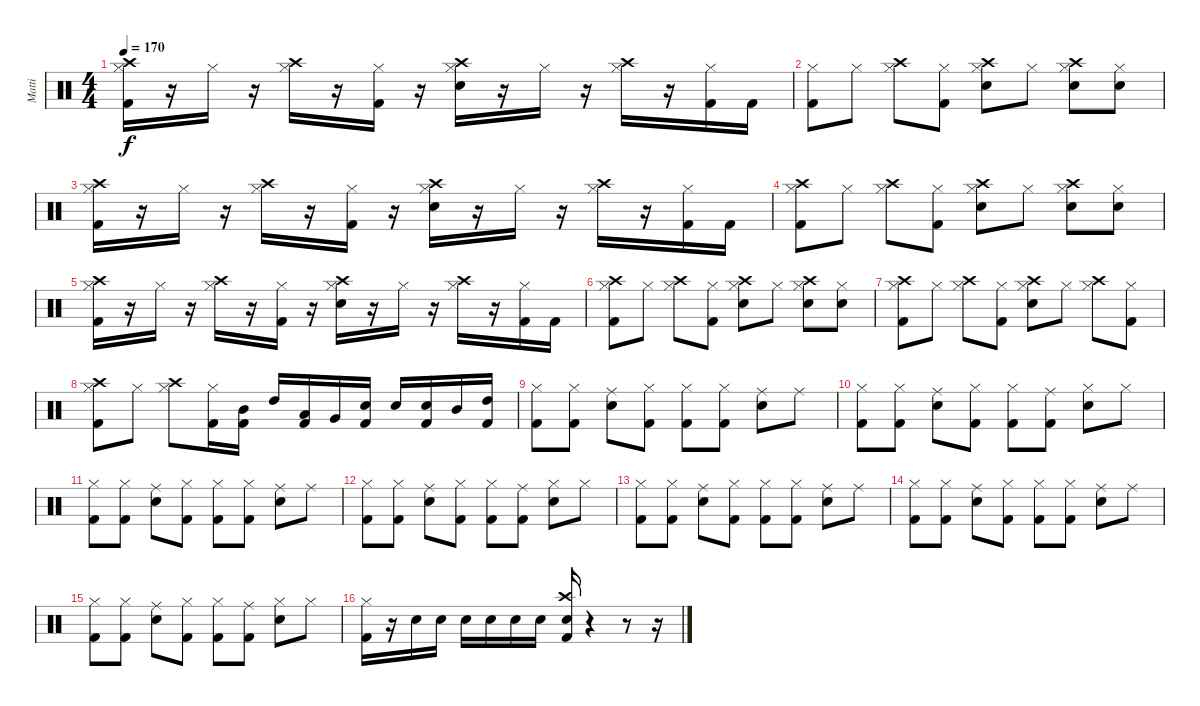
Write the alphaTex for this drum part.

\track ("Matti" "Matti") {instrument percussion}
\staff {score}
\articulation defaults
\ts (4 4)
\tempo 170
\clef neutral
\ks c
("Kick (hit) 2" "Hi-Hat (closed)" "Crash high (hit)").16{dy f} r.16 "Hi-Hat (closed)".16 r.16 ("Hi-Hat (closed)" "Crash high (hit)").16 r.16 ("Kick (hit) 2" "Hi-Hat (closed)").16 r.16 ("Snare (hit) 2" "Hi-Hat (closed)" "Crash high (hit)").16 r.16 "Hi-Hat (closed)".16 r.16 ("Hi-Hat (closed)" "Crash high (hit)").16 r.16 ("Kick (hit) 2" "Hi-Hat (closed)").16 "Kick (hit) 2".16 |
("Kick (hit) 2" "Hi-Hat (closed)").8 "Hi-Hat (closed)".8 ("Hi-Hat (closed)" "Crash high (hit)").8 ("Kick (hit) 2" "Hi-Hat (closed)").8 ("Snare (hit) 2" "Hi-Hat (closed)" "Crash high (hit)").8 "Hi-Hat (closed)".8 ("Snare (hit) 2" "Hi-Hat (closed)" "Crash high (hit)").8 ("Snare (hit) 2" "Hi-Hat (closed)").8 |
("Kick (hit) 2" "Hi-Hat (closed)" "Crash high (hit)").16 r.16 "Hi-Hat (closed)".16 r.16 ("Hi-Hat (closed)" "Crash high (hit)").16 r.16 ("Kick (hit) 2" "Hi-Hat (closed)").16 r.16 ("Snare (hit) 2" "Hi-Hat (closed)" "Crash high (hit)").16 r.16 "Hi-Hat (closed)".16 r.16 ("Hi-Hat (closed)" "Crash high (hit)").16 r.16 ("Kick (hit) 2" "Hi-Hat (closed)").16 "Kick (hit) 2".16 |
("Kick (hit) 2" "Hi-Hat (closed)" "Crash high (hit)").8 "Hi-Hat (closed)".8 ("Hi-Hat (closed)" "Crash high (hit)").8 ("Kick (hit) 2" "Hi-Hat (closed)").8 ("Snare (hit) 2" "Hi-Hat (closed)" "Crash high (hit)").8 "Hi-Hat (closed)".8 ("Snare (hit) 2" "Hi-Hat (closed)" "Crash high (hit)").8 ("Snare (hit) 2" "Hi-Hat (closed)").8 |
("Kick (hit) 2" "Hi-Hat (closed)" "Crash high (hit)").16 r.16 "Hi-Hat (closed)".16 r.16 ("Hi-Hat (closed)" "Crash high (hit)").16 r.16 ("Kick (hit) 2" "Hi-Hat (closed)").16 r.16 ("Snare (hit) 2" "Hi-Hat (closed)" "Crash high (hit)").16 r.16 "Hi-Hat (closed)".16 r.16 ("Hi-Hat (closed)" "Crash high (hit)").16 r.16 ("Kick (hit) 2" "Hi-Hat (closed)").16 "Kick (hit) 2".16 |
("Kick (hit) 2" "Hi-Hat (closed)" "Crash high (hit)").8 "Hi-Hat (closed)".8 ("Hi-Hat (closed)" "Crash high (hit)").8 ("Kick (hit) 2" "Hi-Hat (closed)").8 ("Snare (hit) 2" "Hi-Hat (closed)" "Crash high (hit)").8 "Hi-Hat (closed)".8 ("Snare (hit) 2" "Hi-Hat (closed)" "Crash high (hit)").8 ("Snare (hit) 2" "Hi-Hat (closed)").8 |
("Kick (hit) 2" "Hi-Hat (closed)" "Crash high (hit)").8 "Hi-Hat (closed)".8 ("Hi-Hat (closed)" "Crash high (hit)").8 ("Kick (hit) 2" "Hi-Hat (closed)").8 ("Snare (hit) 2" "Hi-Hat (closed)" "Crash high (hit)").8 "Hi-Hat (closed)".8 ("Hi-Hat (closed)" "Crash high (hit)").8 ("Kick (hit) 2" "Hi-Hat (closed)").8 |
("Kick (hit) 2" "Hi-Hat (closed)" "Crash high (hit)").8 "Hi-Hat (closed)".8 ("Hi-Hat (closed)" "Crash high (hit)").8 ("Kick (hit) 2" "Hi-Hat (closed)").16 ("Mid Tom (hit)" "Kick (hit) 2").16 "High Tom (hit)".16 ("Low Tom (hit)" "Kick (hit) 2").16 "Very Low Tom (hit)".16 ("Electric Snare (hit)" "Kick (hit) 2").16 "Snare (hit) 2".16 ("Snare (hit) 2" "Kick (hit) 2").16 "Mid Tom (hit)".16 ("High Tom (hit)" "Kick (hit) 2").16 |
("Kick (hit) 2" "Hi-Hat (closed)").8 ("Kick (hit) 2" "Hi-Hat (closed)").8 ("Snare (hit) 2" "Ride (middle)").8 ("Kick (hit) 2" "Hi-Hat (closed)").8 ("Kick (hit) 2" "Hi-Hat (closed)").8 ("Kick (hit) 2" "Hi-Hat (closed)").8 ("Snare (hit) 2" "Ride (middle)").8 "Ride (middle)".8 |
("Kick (hit) 2" "Hi-Hat (closed)").8 ("Kick (hit) 2" "Hi-Hat (closed)").8 ("Snare (hit) 2" "Ride (middle)").8 ("Kick (hit) 2" "Hi-Hat (closed)").8 ("Kick (hit) 2" "Hi-Hat (closed)").8 ("Kick (hit) 2" "Ride (middle)").8 ("Snare (hit) 2" "Hi-Hat (closed)").8 "Hi-Hat (closed)".8 |
("Kick (hit) 2" "Hi-Hat (closed)").8 ("Kick (hit) 2" "Hi-Hat (closed)").8 ("Snare (hit) 2" "Ride (middle)").8 ("Kick (hit) 2" "Hi-Hat (closed)").8 ("Kick (hit) 2" "Hi-Hat (closed)").8 ("Kick (hit) 2" "Hi-Hat (closed)").8 ("Snare (hit) 2" "Ride (middle)").8 "Ride (middle)".8 |
("Kick (hit) 2" "Hi-Hat (closed)").8 ("Kick (hit) 2" "Hi-Hat (closed)").8 ("Snare (hit) 2" "Ride (middle)").8 ("Kick (hit) 2" "Hi-Hat (closed)").8 ("Kick (hit) 2" "Hi-Hat (closed)").8 ("Kick (hit) 2" "Ride (middle)").8 ("Snare (hit) 2" "Hi-Hat (closed)").8 "Hi-Hat (closed)".8 |
("Kick (hit) 2" "Hi-Hat (closed)").8 ("Kick (hit) 2" "Hi-Hat (closed)").8 ("Snare (hit) 2" "Ride (middle)").8 ("Kick (hit) 2" "Hi-Hat (closed)").8 ("Kick (hit) 2" "Hi-Hat (closed)").8 ("Kick (hit) 2" "Hi-Hat (closed)").8 ("Snare (hit) 2" "Ride (middle)").8 "Ride (middle)".8 |
("Kick (hit) 2" "Hi-Hat (closed)").8 ("Kick (hit) 2" "Hi-Hat (closed)").8 ("Snare (hit) 2" "Ride (middle)").8 ("Kick (hit) 2" "Hi-Hat (closed)").8 ("Kick (hit) 2" "Hi-Hat (closed)").8 ("Kick (hit) 2" "Hi-Hat (closed)").8 ("Snare (hit) 2" "Ride (middle)").8 "Ride (middle)".8 |
("Kick (hit) 2" "Hi-Hat (closed)").8 ("Kick (hit) 2" "Hi-Hat (closed)").8 ("Snare (hit) 2" "Ride (middle)").8 ("Kick (hit) 2" "Hi-Hat (closed)").8 ("Kick (hit) 2" "Hi-Hat (closed)").8 ("Kick (hit) 2" "Ride (middle)").8 ("Snare (hit) 2" "Hi-Hat (closed)").8 "Hi-Hat (closed)".8 |
("Kick (hit) 2" "Hi-Hat (closed)").16 r.16 "Snare (hit) 2".16 "Snare (hit) 2".16 "Snare (hit) 2".16 "Snare (hit) 2".16 "Snare (hit) 2".16 "Snare (hit) 2".16 ("Snare (hit) 2" "Crash high (hit)" "Kick (hit) 2").16 r.4 r.8 r.16
